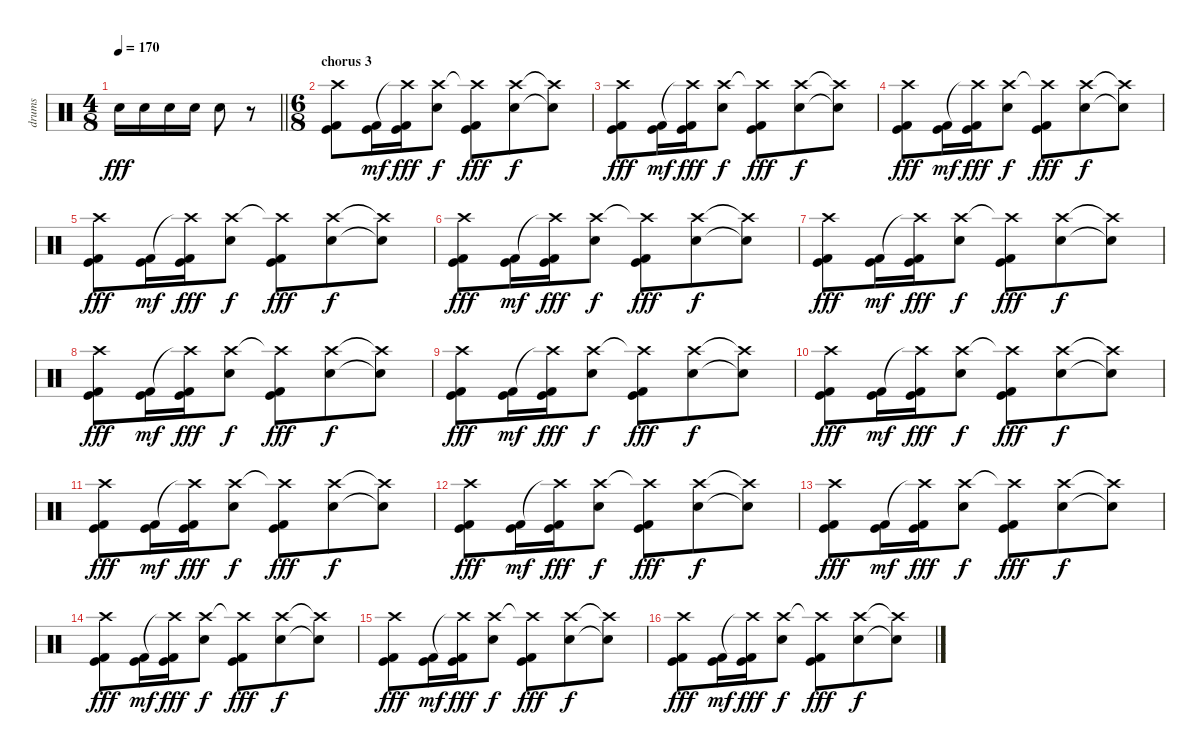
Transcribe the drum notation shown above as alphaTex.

\track ("drums " "drums ") {instrument percussion}
\staff {score}
\articulation defaults
\ts (4 8)
\tempo 170
\clef neutral
\barLineRight lightlight
\ks c "Electric Snare (hit)".16{dy fff} "Electric Snare (hit)".16 "Electric Snare (hit)".16 "Electric Snare (hit)".16 "Electric Snare (hit)".8
r.8 |
\ts (6 8)
\section ("" "chorus 3")
("Crash high (hit)" "Kick (hit) 2" "Kick (hit)").8 ("Kick (hit) 2" "Kick (hit)").16{dy mf} ("Crash high (hit)"{t} "Kick (hit) 2" "Kick (hit)").16{dy fff} ("Crash high (hit)" "Electric Snare (hit)").8{dy f} ("Crash high (hit)"{t} "Kick (hit) 2" "Kick (hit)").8{dy fff} ("Crash high (hit)" "Electric Snare (hit)").8{dy f} ("Crash high (hit)"{t} "Electric Snare (hit)"{t}).8 |
("Crash high (hit)" "Kick (hit) 2" "Kick (hit)").8{dy fff} ("Kick (hit) 2" "Kick (hit)").16{dy mf} ("Crash high (hit)"{t} "Kick (hit) 2" "Kick (hit)").16{dy fff} ("Crash high (hit)" "Electric Snare (hit)").8{dy f} ("Crash high (hit)"{t} "Kick (hit) 2" "Kick (hit)").8{dy fff} ("Crash high (hit)" "Electric Snare (hit)").8{dy f} ("Crash high (hit)"{t} "Electric Snare (hit)"{t}).8 |
("Crash high (hit)" "Kick (hit) 2" "Kick (hit)").8{dy fff} ("Kick (hit) 2" "Kick (hit)").16{dy mf} ("Crash high (hit)"{t} "Kick (hit) 2" "Kick (hit)").16{dy fff} ("Crash high (hit)" "Electric Snare (hit)").8{dy f} ("Crash high (hit)"{t} "Kick (hit) 2" "Kick (hit)").8{dy fff} ("Crash high (hit)" "Electric Snare (hit)").8{dy f} ("Crash high (hit)"{t} "Electric Snare (hit)"{t}).8 |
("Crash high (hit)" "Kick (hit) 2" "Kick (hit)").8{dy fff} ("Kick (hit) 2" "Kick (hit)").16{dy mf} ("Crash high (hit)"{t} "Kick (hit) 2" "Kick (hit)").16{dy fff} ("Crash high (hit)" "Electric Snare (hit)").8{dy f} ("Crash high (hit)"{t} "Kick (hit) 2" "Kick (hit)").8{dy fff} ("Crash high (hit)" "Electric Snare (hit)").8{dy f} ("Crash high (hit)"{t} "Electric Snare (hit)"{t}).8 |
("Crash high (hit)" "Kick (hit) 2" "Kick (hit)").8{dy fff} ("Kick (hit) 2" "Kick (hit)").16{dy mf} ("Crash high (hit)"{t} "Kick (hit) 2" "Kick (hit)").16{dy fff} ("Crash high (hit)" "Electric Snare (hit)").8{dy f} ("Crash high (hit)"{t} "Kick (hit) 2" "Kick (hit)").8{dy fff} ("Crash high (hit)" "Electric Snare (hit)").8{dy f} ("Crash high (hit)"{t} "Electric Snare (hit)"{t}).8 |
("Crash high (hit)" "Kick (hit) 2" "Kick (hit)").8{dy fff} ("Kick (hit) 2" "Kick (hit)").16{dy mf} ("Crash high (hit)"{t} "Kick (hit) 2" "Kick (hit)").16{dy fff} ("Crash high (hit)" "Electric Snare (hit)").8{dy f} ("Crash high (hit)"{t} "Kick (hit) 2" "Kick (hit)").8{dy fff} ("Crash high (hit)" "Electric Snare (hit)").8{dy f} ("Crash high (hit)"{t} "Electric Snare (hit)"{t}).8 |
("Crash high (hit)" "Kick (hit) 2" "Kick (hit)").8{dy fff} ("Kick (hit) 2" "Kick (hit)").16{dy mf} ("Crash high (hit)"{t} "Kick (hit) 2" "Kick (hit)").16{dy fff} ("Crash high (hit)" "Electric Snare (hit)").8{dy f} ("Crash high (hit)"{t} "Kick (hit) 2" "Kick (hit)").8{dy fff} ("Crash high (hit)" "Electric Snare (hit)").8{dy f} ("Crash high (hit)"{t} "Electric Snare (hit)"{t}).8 |
("Crash high (hit)" "Kick (hit) 2" "Kick (hit)").8{dy fff} ("Kick (hit) 2" "Kick (hit)").16{dy mf} ("Crash high (hit)"{t} "Kick (hit) 2" "Kick (hit)").16{dy fff} ("Crash high (hit)" "Electric Snare (hit)").8{dy f} ("Crash high (hit)"{t} "Kick (hit) 2" "Kick (hit)").8{dy fff} ("Crash high (hit)" "Electric Snare (hit)").8{dy f} ("Crash high (hit)"{t} "Electric Snare (hit)"{t}).8 |
("Crash high (hit)" "Kick (hit) 2" "Kick (hit)").8{dy fff} ("Kick (hit) 2" "Kick (hit)").16{dy mf} ("Crash high (hit)"{t} "Kick (hit) 2" "Kick (hit)").16{dy fff} ("Crash high (hit)" "Electric Snare (hit)").8{dy f} ("Crash high (hit)"{t} "Kick (hit) 2" "Kick (hit)").8{dy fff} ("Crash high (hit)" "Electric Snare (hit)").8{dy f} ("Crash high (hit)"{t} "Electric Snare (hit)"{t}).8 |
("Crash high (hit)" "Kick (hit) 2" "Kick (hit)").8{dy fff} ("Kick (hit) 2" "Kick (hit)").16{dy mf} ("Crash high (hit)"{t} "Kick (hit) 2" "Kick (hit)").16{dy fff} ("Crash high (hit)" "Electric Snare (hit)").8{dy f} ("Crash high (hit)"{t} "Kick (hit) 2" "Kick (hit)").8{dy fff} ("Crash high (hit)" "Electric Snare (hit)").8{dy f} ("Crash high (hit)"{t} "Electric Snare (hit)"{t}).8 |
("Crash high (hit)" "Kick (hit) 2" "Kick (hit)").8{dy fff} ("Kick (hit) 2" "Kick (hit)").16{dy mf} ("Crash high (hit)"{t} "Kick (hit) 2" "Kick (hit)").16{dy fff} ("Crash high (hit)" "Electric Snare (hit)").8{dy f} ("Crash high (hit)"{t} "Kick (hit) 2" "Kick (hit)").8{dy fff} ("Crash high (hit)" "Electric Snare (hit)").8{dy f} ("Crash high (hit)"{t} "Electric Snare (hit)"{t}).8 |
("Crash high (hit)" "Kick (hit) 2" "Kick (hit)").8{dy fff} ("Kick (hit) 2" "Kick (hit)").16{dy mf} ("Crash high (hit)"{t} "Kick (hit) 2" "Kick (hit)").16{dy fff} ("Crash high (hit)" "Electric Snare (hit)").8{dy f} ("Crash high (hit)"{t} "Kick (hit) 2" "Kick (hit)").8{dy fff} ("Crash high (hit)" "Electric Snare (hit)").8{dy f} ("Crash high (hit)"{t} "Electric Snare (hit)"{t}).8 |
("Crash high (hit)" "Kick (hit) 2" "Kick (hit)").8{dy fff} ("Kick (hit) 2" "Kick (hit)").16{dy mf} ("Crash high (hit)"{t} "Kick (hit) 2" "Kick (hit)").16{dy fff} ("Crash high (hit)" "Electric Snare (hit)").8{dy f} ("Crash high (hit)"{t} "Kick (hit) 2" "Kick (hit)").8{dy fff} ("Crash high (hit)" "Electric Snare (hit)").8{dy f} ("Crash high (hit)"{t} "Electric Snare (hit)"{t}).8 |
("Crash high (hit)" "Kick (hit) 2" "Kick (hit)").8{dy fff} ("Kick (hit) 2" "Kick (hit)").16{dy mf} ("Crash high (hit)"{t} "Kick (hit) 2" "Kick (hit)").16{dy fff} ("Crash high (hit)" "Electric Snare (hit)").8{dy f} ("Crash high (hit)"{t} "Kick (hit) 2" "Kick (hit)").8{dy fff} ("Crash high (hit)" "Electric Snare (hit)").8{dy f} ("Crash high (hit)"{t} "Electric Snare (hit)"{t}).8 |
("Crash high (hit)" "Kick (hit) 2" "Kick (hit)").8{dy fff} ("Kick (hit) 2" "Kick (hit)").16{dy mf} ("Crash high (hit)"{t} "Kick (hit) 2" "Kick (hit)").16{dy fff} ("Crash high (hit)" "Electric Snare (hit)").8{dy f} ("Crash high (hit)"{t} "Kick (hit) 2" "Kick (hit)").8{dy fff} ("Crash high (hit)" "Electric Snare (hit)").8{dy f} ("Crash high (hit)"{t} "Electric Snare (hit)"{t}).8
